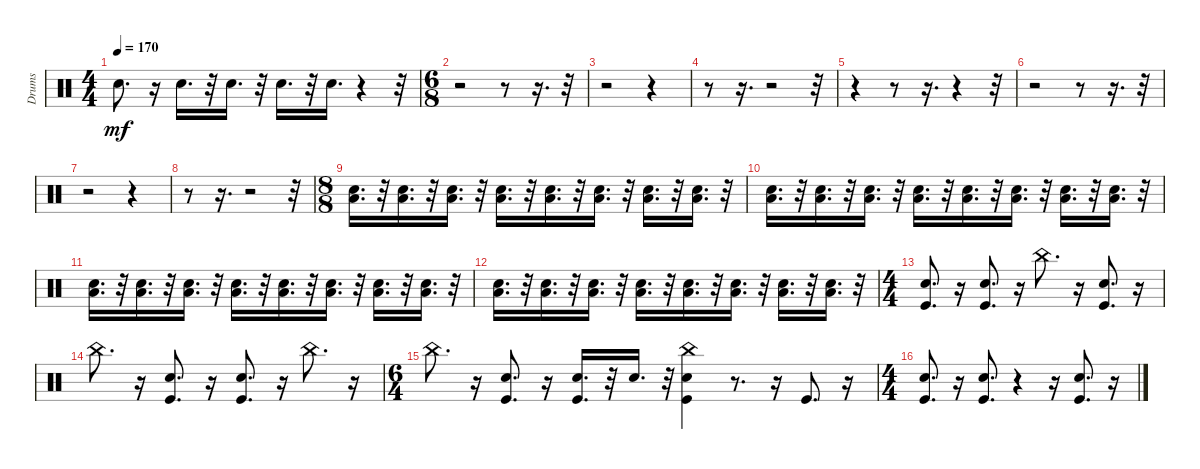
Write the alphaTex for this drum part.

\track ("Drums" "Drums") {instrument percussion}
\staff {score}
\articulation defaults
\ts (4 4)
\tempo 170
\clef neutral
\ks c "Snare (hit) 2".8{d dy mf}
r.16 "Snare (hit) 2".16{d} r.32 "Snare (hit) 2".16{d} r.32 "Snare (hit) 2".16{d} r.32 "Snare (hit) 2".16{d} r.4 r.32 |
\ts (6 8)
r.2 r.8 r.16{d} r.32 |
r.2 r.4 |
r.8 r.16{d} r.2 r.32 |
r.4 r.8 r.16{d} r.4 r.32 |
r.2 r.8 r.16{d} r.32 |
r.2 r.4 |
r.8 r.16{d} r.2 r.32 |
\ts (8 8)
("Snare (hit) 2" "Low Tom (hit)").16{d} r.32 ("Snare (hit) 2" "Low Tom (hit)").16{d} r.32 ("Snare (hit) 2" "Low Tom (hit)").16{d} r.32 ("Snare (hit) 2" "Low Tom (hit)").16{d} r.32 ("Snare (hit) 2" "Low Tom (hit)").16{d} r.32 ("Snare (hit) 2" "Low Tom (hit)").16{d} r.32 ("Snare (hit) 2" "Low Tom (hit)").16{d} r.32 ("Snare (hit) 2" "Low Tom (hit)").16{d} r.32 |
("Snare (hit) 2" "Low Tom (hit)").16{d} r.32 ("Snare (hit) 2" "Low Tom (hit)").16{d} r.32 ("Snare (hit) 2" "Low Tom (hit)").16{d} r.32 ("Snare (hit) 2" "Low Tom (hit)").16{d} r.32 ("Snare (hit) 2" "Low Tom (hit)").16{d} r.32 ("Snare (hit) 2" "Low Tom (hit)").16{d} r.32 ("Snare (hit) 2" "Low Tom (hit)").16{d} r.32 ("Snare (hit) 2" "Low Tom (hit)").16{d} r.32 |
("Snare (hit) 2" "Low Tom (hit)").16{d} r.32 ("Snare (hit) 2" "Low Tom (hit)").16{d} r.32 ("Snare (hit) 2" "Low Tom (hit)").16{d} r.32 ("Snare (hit) 2" "Low Tom (hit)").16{d} r.32 ("Snare (hit) 2" "Low Tom (hit)").16{d} r.32 ("Snare (hit) 2" "Low Tom (hit)").16{d} r.32 ("Snare (hit) 2" "Low Tom (hit)").16{d} r.32 ("Snare (hit) 2" "Low Tom (hit)").16{d} r.32 |
("Snare (hit) 2" "Low Tom (hit)").16{d} r.32 ("Snare (hit) 2" "Low Tom (hit)").16{d} r.32 ("Snare (hit) 2" "Low Tom (hit)").16{d} r.32 ("Snare (hit) 2" "Low Tom (hit)").16{d} r.32 ("Snare (hit) 2" "Low Tom (hit)").16{d} r.32 ("Snare (hit) 2" "Low Tom (hit)").16{d} r.32 ("Snare (hit) 2" "Low Tom (hit)").16{d} r.32 ("Snare (hit) 2" "Low Tom (hit)").16{d} r.32 |
\ts (4 4)
("Kick (hit)" "Snare (hit) 2").8{d} r.16 ("Kick (hit)" "Snare (hit) 2").8{d} r.16 "China (hit)".8{d} r.16 ("Kick (hit)" "Snare (hit) 2").8{d} r.16 |
"China (hit)".8{d} r.16 ("Kick (hit)" "Snare (hit) 2").8{d} r.16 ("Kick (hit)" "Snare (hit) 2").8{d} r.16 "China (hit)".8{d} r.16 |
\ts (6 4)
"China (hit)".8{d} r.16 ("Kick (hit)" "Snare (hit) 2").8{d} r.16 ("Kick (hit)" "Snare (hit) 2").16{d} r.32 "Snare (hit) 2".16{d} r.32 ("Kick (hit)" "Snare (hit) 2" "China (hit)").4 r.8{d} r.16 "Kick (hit)".8{d} r.16 |
\ts (4 4)
("Kick (hit)" "Snare (hit) 2").8{d} r.16 ("Kick (hit)" "Snare (hit) 2").8{d} r.4 r.16 ("Kick (hit)" "Snare (hit) 2").8{d} r.16
